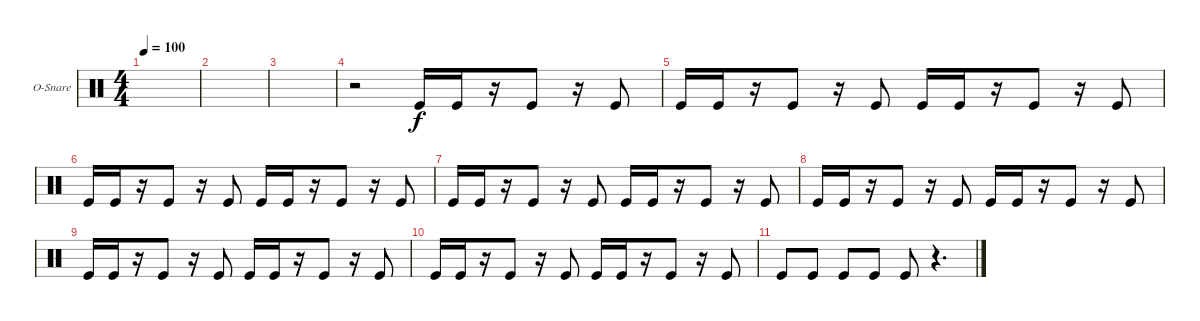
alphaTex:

\bracketExtendMode groupsimilarinstruments
\firstSystemTrackNameOrientation horizontal
\otherSystemsTrackNameOrientation horizontal
\track ("Snare" "O-Snare") {instrument percussion}
\staff {score}
\articulation defaults
\ts (4 4)
\tempo 100
\clef neutral
\scale
0.333333
\ks c
|
\scale
0.333333 |
\scale
0.333333 |
\scale
0.333333 r.2 "Kick (hit)".16 "Kick (hit)".16 r.16 "Kick (hit)".8 r.16 "Kick (hit)".8 |
\scale
0.333333 "Kick (hit)".16 "Kick (hit)".16 r.16 "Kick (hit)".8 r.16 "Kick (hit)".8 "Kick (hit)".16 "Kick (hit)".16 r.16 "Kick (hit)".8 r.16 "Kick (hit)".8 |
\scale
0.333333 "Kick (hit)".16 "Kick (hit)".16 r.16 "Kick (hit)".8 r.16 "Kick (hit)".8 "Kick (hit)".16 "Kick (hit)".16 r.16 "Kick (hit)".8 r.16 "Kick (hit)".8 |
\scale
0.333333 "Kick (hit)".16 "Kick (hit)".16 r.16 "Kick (hit)".8 r.16 "Kick (hit)".8 "Kick (hit)".16 "Kick (hit)".16 r.16 "Kick (hit)".8 r.16 "Kick (hit)".8 |
\scale
0.333333 "Kick (hit)".16 "Kick (hit)".16 r.16 "Kick (hit)".8 r.16 "Kick (hit)".8 "Kick (hit)".16 "Kick (hit)".16 r.16 "Kick (hit)".8 r.16 "Kick (hit)".8 |
\scale
0.333333 "Kick (hit)".16 "Kick (hit)".16 r.16 "Kick (hit)".8 r.16 "Kick (hit)".8 "Kick (hit)".16 "Kick (hit)".16 r.16 "Kick (hit)".8 r.16 "Kick (hit)".8 |
"Kick (hit)".16 "Kick (hit)".16 r.16 "Kick (hit)".8 r.16 "Kick (hit)".8 "Kick (hit)".16 "Kick (hit)".16 r.16 "Kick (hit)".8 r.16 "Kick (hit)".8 |
"Kick (hit)".8 "Kick (hit)".8 "Kick (hit)".8 "Kick (hit)".8 "Kick (hit)".8 r.4{d}
